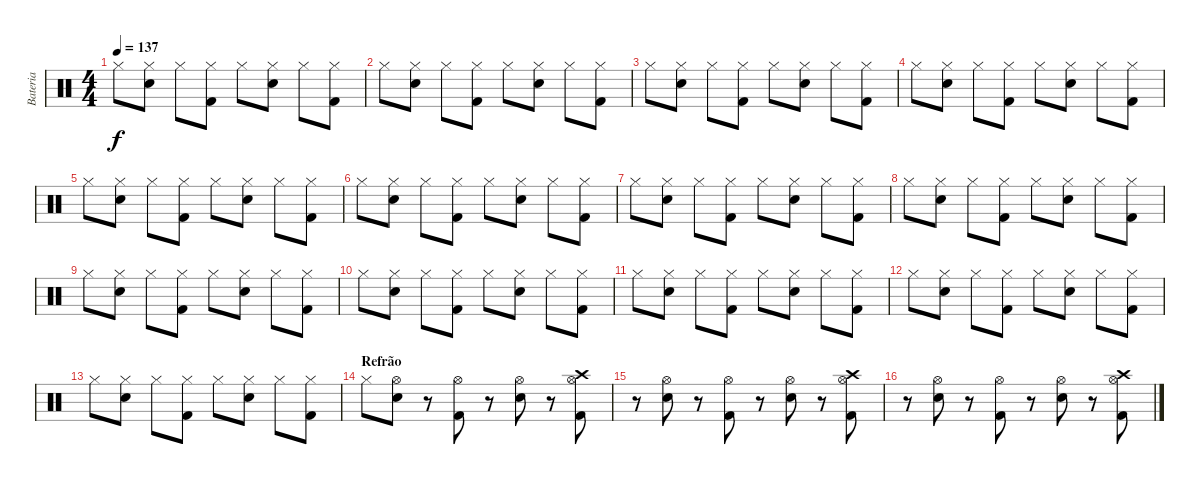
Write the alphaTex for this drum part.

\track ("Bateria" "Bateria") {instrument percussion}
\staff {score}
\articulation defaults
\ts (4 4)
\tempo 137
\clef neutral
\ks c "Hi-Hat (closed)".8{dy f}
("Snare (hit) 2" "Hi-Hat (closed)").8 "Hi-Hat (closed)".8 ("Kick (hit) 2" "Hi-Hat (closed)").8 "Hi-Hat (closed)".8 ("Snare (hit) 2" "Hi-Hat (closed)").8 "Hi-Hat (closed)".8 ("Kick (hit) 2" "Hi-Hat (closed)").8 |
"Hi-Hat (closed)".8 ("Snare (hit) 2" "Hi-Hat (closed)").8 "Hi-Hat (closed)".8 ("Kick (hit) 2" "Hi-Hat (closed)").8 "Hi-Hat (closed)".8 ("Snare (hit) 2" "Hi-Hat (closed)").8 "Hi-Hat (closed)".8 ("Kick (hit) 2" "Hi-Hat (closed)").8 |
"Hi-Hat (closed)".8 ("Snare (hit) 2" "Hi-Hat (closed)").8 "Hi-Hat (closed)".8 ("Kick (hit) 2" "Hi-Hat (closed)").8 "Hi-Hat (closed)".8 ("Snare (hit) 2" "Hi-Hat (closed)").8 "Hi-Hat (closed)".8 ("Kick (hit) 2" "Hi-Hat (closed)").8 |
"Hi-Hat (closed)".8 ("Snare (hit) 2" "Hi-Hat (closed)").8 "Hi-Hat (closed)".8 ("Kick (hit) 2" "Hi-Hat (closed)").8 "Hi-Hat (closed)".8 ("Snare (hit) 2" "Hi-Hat (closed)").8 "Hi-Hat (closed)".8 ("Kick (hit) 2" "Hi-Hat (closed)").8 |
"Hi-Hat (closed)".8 ("Snare (hit) 2" "Hi-Hat (closed)").8 "Hi-Hat (closed)".8 ("Kick (hit) 2" "Hi-Hat (closed)").8 "Hi-Hat (closed)".8 ("Snare (hit) 2" "Hi-Hat (closed)").8 "Hi-Hat (closed)".8 ("Kick (hit) 2" "Hi-Hat (closed)").8 |
"Hi-Hat (closed)".8 ("Snare (hit) 2" "Hi-Hat (closed)").8 "Hi-Hat (closed)".8 ("Kick (hit) 2" "Hi-Hat (closed)").8 "Hi-Hat (closed)".8 ("Snare (hit) 2" "Hi-Hat (closed)").8 "Hi-Hat (closed)".8 ("Kick (hit) 2" "Hi-Hat (closed)").8 |
"Hi-Hat (closed)".8 ("Snare (hit) 2" "Hi-Hat (closed)").8 "Hi-Hat (closed)".8 ("Kick (hit) 2" "Hi-Hat (closed)").8 "Hi-Hat (closed)".8 ("Snare (hit) 2" "Hi-Hat (closed)").8 "Hi-Hat (closed)".8 ("Kick (hit) 2" "Hi-Hat (closed)").8 |
"Hi-Hat (closed)".8 ("Snare (hit) 2" "Hi-Hat (closed)").8 "Hi-Hat (closed)".8 ("Kick (hit) 2" "Hi-Hat (closed)").8 "Hi-Hat (closed)".8 ("Snare (hit) 2" "Hi-Hat (closed)").8 "Hi-Hat (closed)".8 ("Kick (hit) 2" "Hi-Hat (closed)").8 |
"Hi-Hat (closed)".8 ("Snare (hit) 2" "Hi-Hat (closed)").8 "Hi-Hat (closed)".8 ("Kick (hit) 2" "Hi-Hat (closed)").8 "Hi-Hat (closed)".8 ("Snare (hit) 2" "Hi-Hat (closed)").8 "Hi-Hat (closed)".8 ("Kick (hit) 2" "Hi-Hat (closed)").8 |
"Hi-Hat (closed)".8 ("Snare (hit) 2" "Hi-Hat (closed)").8 "Hi-Hat (closed)".8 ("Kick (hit) 2" "Hi-Hat (closed)").8 "Hi-Hat (closed)".8 ("Snare (hit) 2" "Hi-Hat (closed)").8 "Hi-Hat (closed)".8 ("Kick (hit) 2" "Hi-Hat (closed)").8 |
"Hi-Hat (closed)".8 ("Snare (hit) 2" "Hi-Hat (closed)").8 "Hi-Hat (closed)".8 ("Kick (hit) 2" "Hi-Hat (closed)").8 "Hi-Hat (closed)".8 ("Snare (hit) 2" "Hi-Hat (closed)").8 "Hi-Hat (closed)".8 ("Kick (hit) 2" "Hi-Hat (closed)").8 |
"Hi-Hat (closed)".8 ("Snare (hit) 2" "Hi-Hat (closed)").8 "Hi-Hat (closed)".8 ("Kick (hit) 2" "Hi-Hat (closed)").8 "Hi-Hat (closed)".8 ("Snare (hit) 2" "Hi-Hat (closed)").8 "Hi-Hat (closed)".8 ("Kick (hit) 2" "Hi-Hat (closed)").8 |
"Hi-Hat (closed)".8 ("Snare (hit) 2" "Hi-Hat (closed)").8 "Hi-Hat (closed)".8 ("Kick (hit) 2" "Hi-Hat (closed)").8 "Hi-Hat (closed)".8 ("Snare (hit) 2" "Hi-Hat (closed)").8 "Hi-Hat (closed)".8 ("Kick (hit) 2" "Hi-Hat (closed)").8 |
\section ("" "Refrão")
"Hi-Hat (closed)".8 ("Snare (hit) 2" "Hi-Hat (open)").8 r.8 ("Kick (hit) 2" "Hi-Hat (open)").8 r.8 ("Snare (hit) 2" "Hi-Hat (open)").8 r.8 ("Kick (hit) 2" "Hi-Hat (open)" "Crash high (hit)").8 |
r.8 ("Snare (hit) 2" "Hi-Hat (open)").8 r.8 ("Kick (hit) 2" "Hi-Hat (open)").8 r.8 ("Snare (hit) 2" "Hi-Hat (open)").8 r.8 ("Kick (hit) 2" "Hi-Hat (open)" "Crash high (hit)").8 |
r.8 ("Snare (hit) 2" "Hi-Hat (open)").8 r.8 ("Kick (hit) 2" "Hi-Hat (open)").8 r.8 ("Snare (hit) 2" "Hi-Hat (open)").8 r.8 ("Kick (hit) 2" "Hi-Hat (open)" "Crash high (hit)").8
